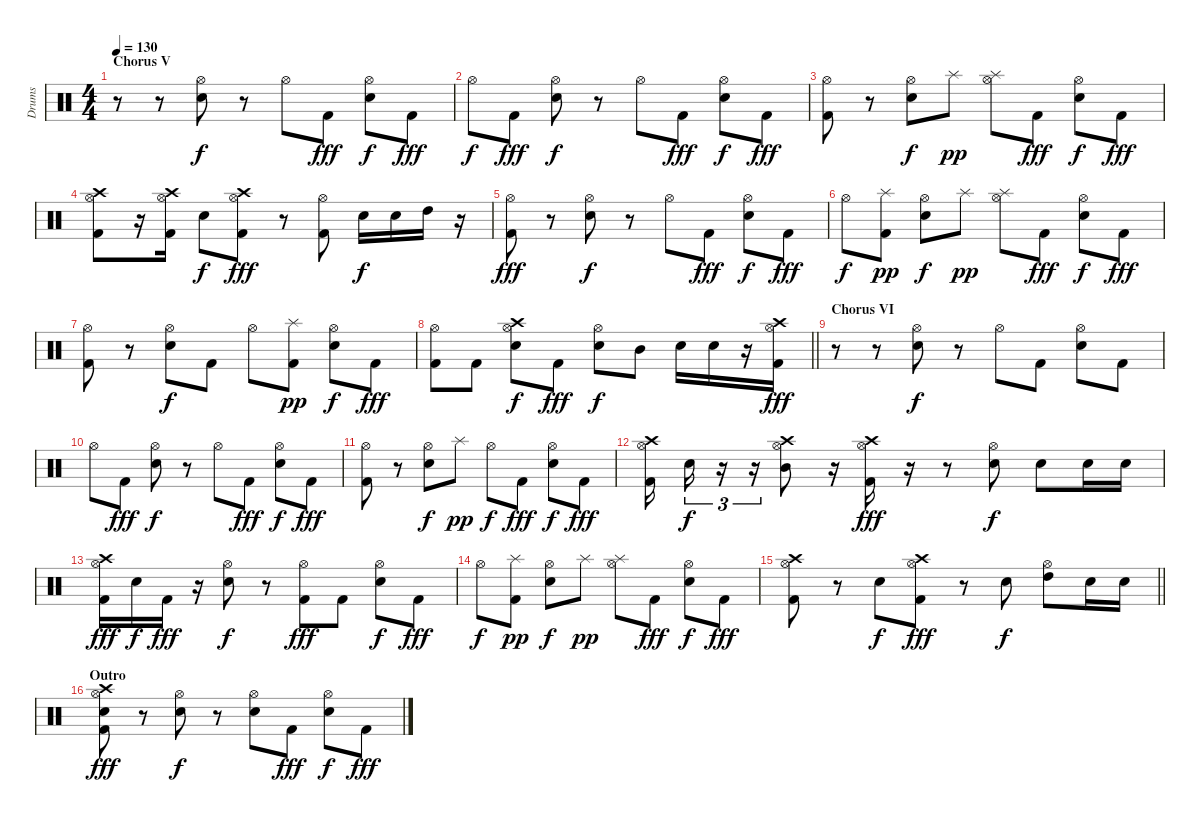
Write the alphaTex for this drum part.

\track ("Drums" "Drums") {instrument percussion}
\staff {score}
\articulation defaults
\ts (4 4)
\section ("" "Chorus V")
\tempo 130
\clef neutral
\ks c
r.8{dy fff} r.8 ("Snare (hit) 2" "Hi-Hat (open)").8{dy f} r.8 "Hi-Hat (open)".8 "Kick (hit) 2".8{dy fff} ("Snare (hit) 2" "Hi-Hat (open)").8{dy f} "Kick (hit) 2".8{dy fff} |
"Hi-Hat (open)".8{dy f} "Kick (hit) 2".8{dy fff} ("Snare (hit) 2" "Hi-Hat (open)").8{dy f} r.8 "Hi-Hat (open)".8 "Kick (hit) 2".8{dy fff} ("Snare (hit) 2" "Hi-Hat (open)").8{dy f} "Kick (hit) 2".8{dy fff} |
("Kick (hit) 2" "Hi-Hat (open)").8 r.8 ("Snare (hit) 2" "Hi-Hat (open)").8{dy f} "Splash (hit)".8{dy pp} ("Splash (hit)" "Hi-Hat (open)").8 "Kick (hit) 2".8{dy fff} ("Snare (hit) 2" "Hi-Hat (open)").8{dy f} "Kick (hit) 2".8{dy fff} |
("Kick (hit) 2" "Crash high (hit)" "Hi-Hat (open)").8 r.16 ("Kick (hit) 2" "Crash high (hit)" "Hi-Hat (open)").16 "Snare (hit) 2".8{dy f} ("Kick (hit) 2" "Crash high (hit)" "Hi-Hat (open)").8{dy fff} r.8 ("Kick (hit) 2" "Hi-Hat (open)").8 "Snare (hit) 2".16{dy f} "Snare (hit) 2".16 "High Tom (hit)".16 r.16 |
("Kick (hit) 2" "Hi-Hat (open)").8{dy fff} r.8 ("Snare (hit) 2" "Hi-Hat (open)").8{dy f} r.8 "Hi-Hat (open)".8 "Kick (hit) 2".8{dy fff} ("Snare (hit) 2" "Hi-Hat (open)").8{dy f} "Kick (hit) 2".8{dy fff} |
"Hi-Hat (open)".8{dy f} ("Kick (hit) 2" "Splash (hit)").8{dy pp} ("Snare (hit) 2" "Hi-Hat (open)").8{dy f} "Splash (hit)".8{dy pp} ("Splash (hit)" "Hi-Hat (open)").8 "Kick (hit) 2".8{dy fff} ("Snare (hit) 2" "Hi-Hat (open)").8{dy f} "Kick (hit) 2".8{dy fff} |
("Kick (hit) 2" "Hi-Hat (open)").8 r.8 ("Snare (hit) 2" "Hi-Hat (open)").8{dy f} "Kick (hit) 2".8 "Hi-Hat (open)".8 ("Kick (hit) 2" "Splash (hit)").8{dy pp} ("Snare (hit) 2" "Hi-Hat (open)").8{dy f} "Kick (hit) 2".8{dy fff} |
\barLineRight lightlight
("Kick (hit) 2" "Hi-Hat (open)").8 "Kick (hit) 2".8 ("Snare (hit) 2" "Crash high (hit)" "Hi-Hat (open)").8{dy f} "Kick (hit) 2".8{dy fff} ("Snare (hit) 2" "Hi-Hat (open)").8{dy f} "Mid Tom (hit)".8 "Snare (hit) 2".16 "Snare (hit) 2".16 r.16 ("Kick (hit) 2" "Crash high (hit)" "Hi-Hat (open)").16{dy fff} |
\section ("" "Chorus VI")
r.8 r.8 ("Snare (hit) 2" "Hi-Hat (open)").8{dy f} r.8 "Hi-Hat (open)".8 "Kick (hit) 2".8 ("Snare (hit) 2" "Hi-Hat (open)").8 "Kick (hit) 2".8 |
"Hi-Hat (open)".8 "Kick (hit) 2".8{dy fff} ("Snare (hit) 2" "Hi-Hat (open)").8{dy f} r.8 "Hi-Hat (open)".8 "Kick (hit) 2".8{dy fff} ("Snare (hit) 2" "Hi-Hat (open)").8{dy f} "Kick (hit) 2".8{dy fff} |
("Kick (hit) 2" "Hi-Hat (open)").8 r.8 ("Snare (hit) 2" "Hi-Hat (open)").8{dy f} "Splash (hit)".8{dy pp} "Hi-Hat (open)".8{dy f} "Kick (hit) 2".8{dy fff} ("Snare (hit) 2" "Hi-Hat (open)").8{dy f} "Kick (hit) 2".8{dy fff} |
("Kick (hit) 2" "Crash high (hit)" "Hi-Hat (open)").16 "Snare (hit) 2".16{tu (3 2) dy f} r.16{tu (3 2)} r.16{tu (3 2)} ("Mid Tom (hit)" "Crash high (hit)" "Hi-Hat (open)").8 r.16 ("Kick (hit) 2" "Crash high (hit)" "Hi-Hat (open)").16{dy fff} r.16 r.8 ("Snare (hit) 2" "Hi-Hat (open)").8{dy f} "Snare (hit) 2".8 "Snare (hit) 2".16 "Snare (hit) 2".16 |
("Kick (hit) 2" "Crash high (hit)" "Hi-Hat (open)").16{dy fff} "Snare (hit) 2".16{dy f} "Kick (hit) 2".16{dy fff} r.16 ("Snare (hit) 2" "Hi-Hat (open)").8{dy f} r.8 ("Kick (hit) 2" "Hi-Hat (open)").8{dy fff} "Kick (hit) 2".8 ("Snare (hit) 2" "Hi-Hat (open)").8{dy f} "Kick (hit) 2".8{dy fff} |
"Hi-Hat (open)".8{dy f} ("Kick (hit) 2" "Splash (hit)").8{dy pp} ("Snare (hit) 2" "Hi-Hat (open)").8{dy f} "Splash (hit)".8{dy pp} ("Splash (hit)" "Hi-Hat (open)").8 "Kick (hit) 2".8{dy fff} ("Snare (hit) 2" "Hi-Hat (open)").8{dy f} "Kick (hit) 2".8{dy fff} |
\barLineRight lightlight
("Kick (hit) 2" "Crash high (hit)" "Hi-Hat (open)").8 r.8 "Snare (hit) 2".8{dy f} ("Kick (hit) 2" "Crash high (hit)" "Hi-Hat (open)").8{dy fff} r.8 "Snare (hit) 2".8{dy f} ("High Tom (hit)" "Hi-Hat (open)").8 "Snare (hit) 2".16 "Snare (hit) 2".16 |
\section ("" "Outro")
("Kick (hit) 2" "Snare (hit) 2" "Crash high (hit)" "Hi-Hat (open)").8{dy fff} r.8 ("Snare (hit) 2" "Hi-Hat (open)").8{dy f} r.8 ("Snare (hit) 2" "Hi-Hat (open)").8 "Kick (hit) 2".8{dy fff} ("Snare (hit) 2" "Hi-Hat (open)").8{dy f} "Kick (hit) 2".8{dy fff}
